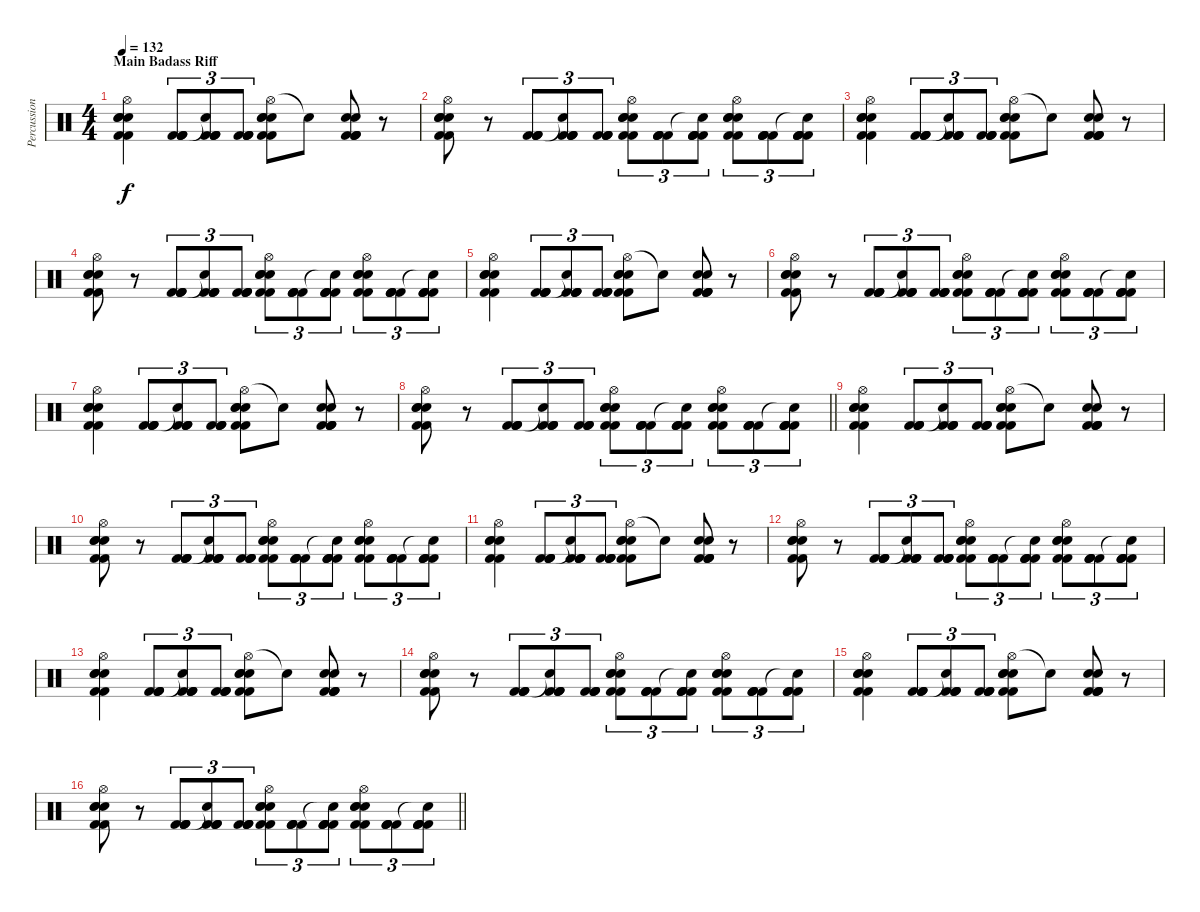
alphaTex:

\track ("Percussion" "Percussion") {instrument percussion}
\staff {score}
\articulation defaults
\ts (4 4)
\section ("" "Main Badass Riff")
\tempo 132
\clef neutral
\ks c
("Hi-Hat (open)" "Electric Snare (hit)" "Snare (hit) 2" "Snare (hit) 2" "Kick (hit) 2" "Kick (hit) 2").4{dy f} ("Kick (hit) 2" "Kick (hit) 2" "Kick (hit) 2" "Kick (hit) 2").8{tu (3 2)} ("Snare (hit)"{t} "Kick (hit) 2" "Kick (hit) 2" "Kick (hit) 2" "Kick (hit) 2").8{tu (3 2)} ("Kick (hit) 2" "Kick (hit) 2" "Kick (hit) 2" "Kick (hit) 2").8{tu (3 2)} ("Hi-Hat (open)" "Electric Snare (hit)" "Snare (hit) 2" "Snare (hit) 2" "Kick (hit) 2" "Kick (hit) 2").8 "Snare (hit)"{t}.8 ("Kick (hit) 2" "Kick (hit) 2" "Snare (hit) 2" "Snare (hit) 2" "Kick (hit) 2" "Kick (hit) 2").8 r.8 |
("Hi-Hat (open)" "Electric Snare (hit)" "Snare (hit) 2" "Snare (hit) 2" "Kick (hit) 2" "Kick (hit) 2").8 r.8 ("Kick (hit) 2" "Kick (hit) 2" "Kick (hit) 2" "Kick (hit) 2").8{tu (3 2)} ("Snare (hit)"{t} "Kick (hit) 2" "Kick (hit) 2" "Kick (hit) 2" "Kick (hit) 2").8{tu (3 2)} ("Kick (hit) 2" "Kick (hit) 2" "Kick (hit) 2" "Kick (hit) 2").8{tu (3 2)} ("Hi-Hat (open)" "Electric Snare (hit)" "Snare (hit) 2" "Snare (hit) 2" "Kick (hit) 2" "Kick (hit) 2").8{tu (3 2)} ("Kick (hit) 2" "Kick (hit) 2" "Kick (hit) 2" "Kick (hit) 2").8{tu (3 2)} ("Snare (hit)"{t} "Kick (hit) 2" "Kick (hit) 2" "Kick (hit) 2" "Kick (hit) 2").8{tu (3 2)} ("Hi-Hat (open)" "Electric Snare (hit)" "Snare (hit) 2" "Snare (hit) 2" "Kick (hit) 2" "Kick (hit) 2").8{tu (3 2)} ("Kick (hit) 2" "Kick (hit) 2" "Kick (hit) 2" "Kick (hit) 2").8{tu (3 2)} ("Snare (hit)"{t} "Kick (hit) 2" "Kick (hit) 2" "Kick (hit) 2" "Kick (hit) 2").8{tu (3 2)} |
("Hi-Hat (open)" "Electric Snare (hit)" "Snare (hit) 2" "Snare (hit) 2" "Kick (hit) 2" "Kick (hit) 2").4 ("Kick (hit) 2" "Kick (hit) 2" "Kick (hit) 2" "Kick (hit) 2").8{tu (3 2)} ("Snare (hit)"{t} "Kick (hit) 2" "Kick (hit) 2" "Kick (hit) 2" "Kick (hit) 2").8{tu (3 2)} ("Kick (hit) 2" "Kick (hit) 2" "Kick (hit) 2" "Kick (hit) 2").8{tu (3 2)} ("Hi-Hat (open)" "Electric Snare (hit)" "Snare (hit) 2" "Snare (hit) 2" "Kick (hit) 2" "Kick (hit) 2").8 "Snare (hit)"{t}.8 ("Kick (hit) 2" "Kick (hit) 2" "Snare (hit) 2" "Snare (hit) 2" "Kick (hit) 2" "Kick (hit) 2").8 r.8 |
("Hi-Hat (open)" "Electric Snare (hit)" "Snare (hit) 2" "Snare (hit) 2" "Kick (hit) 2" "Kick (hit) 2").8 r.8 ("Kick (hit) 2" "Kick (hit) 2" "Kick (hit) 2" "Kick (hit) 2").8{tu (3 2)} ("Snare (hit)"{t} "Kick (hit) 2" "Kick (hit) 2" "Kick (hit) 2" "Kick (hit) 2").8{tu (3 2)} ("Kick (hit) 2" "Kick (hit) 2" "Kick (hit) 2" "Kick (hit) 2").8{tu (3 2)} ("Hi-Hat (open)" "Electric Snare (hit)" "Snare (hit) 2" "Snare (hit) 2" "Kick (hit) 2" "Kick (hit) 2").8{tu (3 2)} ("Kick (hit) 2" "Kick (hit) 2" "Kick (hit) 2" "Kick (hit) 2").8{tu (3 2)} ("Snare (hit)"{t} "Kick (hit) 2" "Kick (hit) 2" "Kick (hit) 2" "Kick (hit) 2").8{tu (3 2)} ("Hi-Hat (open)" "Electric Snare (hit)" "Snare (hit) 2" "Snare (hit) 2" "Kick (hit) 2" "Kick (hit) 2").8{tu (3 2)} ("Kick (hit) 2" "Kick (hit) 2" "Kick (hit) 2" "Kick (hit) 2").8{tu (3 2)} ("Snare (hit)"{t} "Kick (hit) 2" "Kick (hit) 2" "Kick (hit) 2" "Kick (hit) 2").8{tu (3 2)} |
("Hi-Hat (open)" "Electric Snare (hit)" "Snare (hit) 2" "Snare (hit) 2" "Kick (hit) 2" "Kick (hit) 2").4 ("Kick (hit) 2" "Kick (hit) 2" "Kick (hit) 2" "Kick (hit) 2").8{tu (3 2)} ("Snare (hit)"{t} "Kick (hit) 2" "Kick (hit) 2" "Kick (hit) 2" "Kick (hit) 2").8{tu (3 2)} ("Kick (hit) 2" "Kick (hit) 2" "Kick (hit) 2" "Kick (hit) 2").8{tu (3 2)} ("Hi-Hat (open)" "Electric Snare (hit)" "Snare (hit) 2" "Snare (hit) 2" "Kick (hit) 2" "Kick (hit) 2").8 "Snare (hit)"{t}.8 ("Kick (hit) 2" "Kick (hit) 2" "Snare (hit) 2" "Snare (hit) 2" "Kick (hit) 2" "Kick (hit) 2").8 r.8 |
("Hi-Hat (open)" "Electric Snare (hit)" "Snare (hit) 2" "Snare (hit) 2" "Kick (hit) 2" "Kick (hit) 2").8 r.8 ("Kick (hit) 2" "Kick (hit) 2" "Kick (hit) 2" "Kick (hit) 2").8{tu (3 2)} ("Snare (hit)"{t} "Kick (hit) 2" "Kick (hit) 2" "Kick (hit) 2" "Kick (hit) 2").8{tu (3 2)} ("Kick (hit) 2" "Kick (hit) 2" "Kick (hit) 2" "Kick (hit) 2").8{tu (3 2)} ("Hi-Hat (open)" "Electric Snare (hit)" "Snare (hit) 2" "Snare (hit) 2" "Kick (hit) 2" "Kick (hit) 2").8{tu (3 2)} ("Kick (hit) 2" "Kick (hit) 2" "Kick (hit) 2" "Kick (hit) 2").8{tu (3 2)} ("Snare (hit)"{t} "Kick (hit) 2" "Kick (hit) 2" "Kick (hit) 2" "Kick (hit) 2").8{tu (3 2)} ("Hi-Hat (open)" "Electric Snare (hit)" "Snare (hit) 2" "Snare (hit) 2" "Kick (hit) 2" "Kick (hit) 2").8{tu (3 2)} ("Kick (hit) 2" "Kick (hit) 2" "Kick (hit) 2" "Kick (hit) 2").8{tu (3 2)} ("Snare (hit)"{t} "Kick (hit) 2" "Kick (hit) 2" "Kick (hit) 2" "Kick (hit) 2").8{tu (3 2)} |
("Hi-Hat (open)" "Electric Snare (hit)" "Snare (hit) 2" "Snare (hit) 2" "Kick (hit) 2" "Kick (hit) 2").4 ("Kick (hit) 2" "Kick (hit) 2" "Kick (hit) 2" "Kick (hit) 2").8{tu (3 2)} ("Snare (hit)"{t} "Kick (hit) 2" "Kick (hit) 2" "Kick (hit) 2" "Kick (hit) 2").8{tu (3 2)} ("Kick (hit) 2" "Kick (hit) 2" "Kick (hit) 2" "Kick (hit) 2").8{tu (3 2)} ("Hi-Hat (open)" "Electric Snare (hit)" "Snare (hit) 2" "Snare (hit) 2" "Kick (hit) 2" "Kick (hit) 2").8 "Snare (hit)"{t}.8 ("Kick (hit) 2" "Kick (hit) 2" "Snare (hit) 2" "Snare (hit) 2" "Kick (hit) 2" "Kick (hit) 2").8 r.8 |
\barLineRight lightlight
("Hi-Hat (open)" "Electric Snare (hit)" "Snare (hit) 2" "Snare (hit) 2" "Kick (hit) 2" "Kick (hit) 2").8 r.8 ("Kick (hit) 2" "Kick (hit) 2" "Kick (hit) 2" "Kick (hit) 2").8{tu (3 2)} ("Snare (hit)"{t} "Kick (hit) 2" "Kick (hit) 2" "Kick (hit) 2" "Kick (hit) 2").8{tu (3 2)} ("Kick (hit) 2" "Kick (hit) 2" "Kick (hit) 2" "Kick (hit) 2").8{tu (3 2)} ("Hi-Hat (open)" "Electric Snare (hit)" "Snare (hit) 2" "Snare (hit) 2" "Kick (hit) 2" "Kick (hit) 2").8{tu (3 2)} ("Kick (hit) 2" "Kick (hit) 2" "Kick (hit) 2" "Kick (hit) 2").8{tu (3 2)} ("Snare (hit)"{t} "Kick (hit) 2" "Kick (hit) 2" "Kick (hit) 2" "Kick (hit) 2").8{tu (3 2)} ("Hi-Hat (open)" "Electric Snare (hit)" "Snare (hit) 2" "Snare (hit) 2" "Kick (hit) 2" "Kick (hit) 2").8{tu (3 2)} ("Kick (hit) 2" "Kick (hit) 2" "Kick (hit) 2" "Kick (hit) 2").8{tu (3 2)} ("Snare (hit)"{t} "Kick (hit) 2" "Kick (hit) 2" "Kick (hit) 2" "Kick (hit) 2").8{tu (3 2)} |
("Hi-Hat (open)" "Electric Snare (hit)" "Snare (hit) 2" "Snare (hit) 2" "Kick (hit) 2" "Kick (hit) 2").4 ("Kick (hit) 2" "Kick (hit) 2" "Kick (hit) 2" "Kick (hit) 2").8{tu (3 2)} ("Snare (hit)"{t} "Kick (hit) 2" "Kick (hit) 2" "Kick (hit) 2" "Kick (hit) 2").8{tu (3 2)} ("Kick (hit) 2" "Kick (hit) 2" "Kick (hit) 2" "Kick (hit) 2").8{tu (3 2)} ("Hi-Hat (open)" "Electric Snare (hit)" "Snare (hit) 2" "Snare (hit) 2" "Kick (hit) 2" "Kick (hit) 2").8 "Snare (hit)"{t}.8 ("Kick (hit) 2" "Kick (hit) 2" "Snare (hit) 2" "Snare (hit) 2" "Kick (hit) 2" "Kick (hit) 2").8 r.8 |
("Hi-Hat (open)" "Electric Snare (hit)" "Snare (hit) 2" "Snare (hit) 2" "Kick (hit) 2" "Kick (hit) 2").8 r.8 ("Kick (hit) 2" "Kick (hit) 2" "Kick (hit) 2" "Kick (hit) 2").8{tu (3 2)} ("Snare (hit)"{t} "Kick (hit) 2" "Kick (hit) 2" "Kick (hit) 2" "Kick (hit) 2").8{tu (3 2)} ("Kick (hit) 2" "Kick (hit) 2" "Kick (hit) 2" "Kick (hit) 2").8{tu (3 2)} ("Hi-Hat (open)" "Electric Snare (hit)" "Snare (hit) 2" "Snare (hit) 2" "Kick (hit) 2" "Kick (hit) 2").8{tu (3 2)} ("Kick (hit) 2" "Kick (hit) 2" "Kick (hit) 2" "Kick (hit) 2").8{tu (3 2)} ("Snare (hit)"{t} "Kick (hit) 2" "Kick (hit) 2" "Kick (hit) 2" "Kick (hit) 2").8{tu (3 2)} ("Hi-Hat (open)" "Electric Snare (hit)" "Snare (hit) 2" "Snare (hit) 2" "Kick (hit) 2" "Kick (hit) 2").8{tu (3 2)} ("Kick (hit) 2" "Kick (hit) 2" "Kick (hit) 2" "Kick (hit) 2").8{tu (3 2)} ("Snare (hit)"{t} "Kick (hit) 2" "Kick (hit) 2" "Kick (hit) 2" "Kick (hit) 2").8{tu (3 2)} |
("Hi-Hat (open)" "Electric Snare (hit)" "Snare (hit) 2" "Snare (hit) 2" "Kick (hit) 2" "Kick (hit) 2").4 ("Kick (hit) 2" "Kick (hit) 2" "Kick (hit) 2" "Kick (hit) 2").8{tu (3 2)} ("Snare (hit)"{t} "Kick (hit) 2" "Kick (hit) 2" "Kick (hit) 2" "Kick (hit) 2").8{tu (3 2)} ("Kick (hit) 2" "Kick (hit) 2" "Kick (hit) 2" "Kick (hit) 2").8{tu (3 2)} ("Hi-Hat (open)" "Electric Snare (hit)" "Snare (hit) 2" "Snare (hit) 2" "Kick (hit) 2" "Kick (hit) 2").8 "Snare (hit)"{t}.8 ("Kick (hit) 2" "Kick (hit) 2" "Snare (hit) 2" "Snare (hit) 2" "Kick (hit) 2" "Kick (hit) 2").8 r.8 |
("Hi-Hat (open)" "Electric Snare (hit)" "Snare (hit) 2" "Snare (hit) 2" "Kick (hit) 2" "Kick (hit) 2").8 r.8 ("Kick (hit) 2" "Kick (hit) 2" "Kick (hit) 2" "Kick (hit) 2").8{tu (3 2)} ("Snare (hit)"{t} "Kick (hit) 2" "Kick (hit) 2" "Kick (hit) 2" "Kick (hit) 2").8{tu (3 2)} ("Kick (hit) 2" "Kick (hit) 2" "Kick (hit) 2" "Kick (hit) 2").8{tu (3 2)} ("Hi-Hat (open)" "Electric Snare (hit)" "Snare (hit) 2" "Snare (hit) 2" "Kick (hit) 2" "Kick (hit) 2").8{tu (3 2)} ("Kick (hit) 2" "Kick (hit) 2" "Kick (hit) 2" "Kick (hit) 2").8{tu (3 2)} ("Snare (hit)"{t} "Kick (hit) 2" "Kick (hit) 2" "Kick (hit) 2" "Kick (hit) 2").8{tu (3 2)} ("Hi-Hat (open)" "Electric Snare (hit)" "Snare (hit) 2" "Snare (hit) 2" "Kick (hit) 2" "Kick (hit) 2").8{tu (3 2)} ("Kick (hit) 2" "Kick (hit) 2" "Kick (hit) 2" "Kick (hit) 2").8{tu (3 2)} ("Snare (hit)"{t} "Kick (hit) 2" "Kick (hit) 2" "Kick (hit) 2" "Kick (hit) 2").8{tu (3 2)} |
("Hi-Hat (open)" "Electric Snare (hit)" "Snare (hit) 2" "Snare (hit) 2" "Kick (hit) 2" "Kick (hit) 2").4 ("Kick (hit) 2" "Kick (hit) 2" "Kick (hit) 2" "Kick (hit) 2").8{tu (3 2)} ("Snare (hit)"{t} "Kick (hit) 2" "Kick (hit) 2" "Kick (hit) 2" "Kick (hit) 2").8{tu (3 2)} ("Kick (hit) 2" "Kick (hit) 2" "Kick (hit) 2" "Kick (hit) 2").8{tu (3 2)} ("Hi-Hat (open)" "Electric Snare (hit)" "Snare (hit) 2" "Snare (hit) 2" "Kick (hit) 2" "Kick (hit) 2").8 "Snare (hit)"{t}.8 ("Kick (hit) 2" "Kick (hit) 2" "Snare (hit) 2" "Snare (hit) 2" "Kick (hit) 2" "Kick (hit) 2").8 r.8 |
("Hi-Hat (open)" "Electric Snare (hit)" "Snare (hit) 2" "Snare (hit) 2" "Kick (hit) 2" "Kick (hit) 2").8 r.8 ("Kick (hit) 2" "Kick (hit) 2" "Kick (hit) 2" "Kick (hit) 2").8{tu (3 2)} ("Snare (hit)"{t} "Kick (hit) 2" "Kick (hit) 2" "Kick (hit) 2" "Kick (hit) 2").8{tu (3 2)} ("Kick (hit) 2" "Kick (hit) 2" "Kick (hit) 2" "Kick (hit) 2").8{tu (3 2)} ("Hi-Hat (open)" "Electric Snare (hit)" "Snare (hit) 2" "Snare (hit) 2" "Kick (hit) 2" "Kick (hit) 2").8{tu (3 2)} ("Kick (hit) 2" "Kick (hit) 2" "Kick (hit) 2" "Kick (hit) 2").8{tu (3 2)} ("Snare (hit)"{t} "Kick (hit) 2" "Kick (hit) 2" "Kick (hit) 2" "Kick (hit) 2").8{tu (3 2)} ("Hi-Hat (open)" "Electric Snare (hit)" "Snare (hit) 2" "Snare (hit) 2" "Kick (hit) 2" "Kick (hit) 2").8{tu (3 2)} ("Kick (hit) 2" "Kick (hit) 2" "Kick (hit) 2" "Kick (hit) 2").8{tu (3 2)} ("Snare (hit)"{t} "Kick (hit) 2" "Kick (hit) 2" "Kick (hit) 2" "Kick (hit) 2").8{tu (3 2)} |
("Hi-Hat (open)" "Electric Snare (hit)" "Snare (hit) 2" "Snare (hit) 2" "Kick (hit) 2" "Kick (hit) 2").4 ("Kick (hit) 2" "Kick (hit) 2" "Kick (hit) 2" "Kick (hit) 2").8{tu (3 2)} ("Snare (hit)"{t} "Kick (hit) 2" "Kick (hit) 2" "Kick (hit) 2" "Kick (hit) 2").8{tu (3 2)} ("Kick (hit) 2" "Kick (hit) 2" "Kick (hit) 2" "Kick (hit) 2").8{tu (3 2)} ("Hi-Hat (open)" "Electric Snare (hit)" "Snare (hit) 2" "Snare (hit) 2" "Kick (hit) 2" "Kick (hit) 2").8 "Snare (hit)"{t}.8 ("Kick (hit) 2" "Kick (hit) 2" "Snare (hit) 2" "Snare (hit) 2" "Kick (hit) 2" "Kick (hit) 2").8 r.8 |
\barLineRight lightlight
("Hi-Hat (open)" "Electric Snare (hit)" "Snare (hit) 2" "Snare (hit) 2" "Kick (hit) 2" "Kick (hit) 2").8 r.8 ("Kick (hit) 2" "Kick (hit) 2" "Kick (hit) 2" "Kick (hit) 2").8{tu (3 2)} ("Snare (hit)"{t} "Kick (hit) 2" "Kick (hit) 2" "Kick (hit) 2" "Kick (hit) 2").8{tu (3 2)} ("Kick (hit) 2" "Kick (hit) 2" "Kick (hit) 2" "Kick (hit) 2").8{tu (3 2)} ("Hi-Hat (open)" "Electric Snare (hit)" "Snare (hit) 2" "Snare (hit) 2" "Kick (hit) 2" "Kick (hit) 2").8{tu (3 2)} ("Kick (hit) 2" "Kick (hit) 2" "Kick (hit) 2" "Kick (hit) 2").8{tu (3 2)} ("Snare (hit)"{t} "Kick (hit) 2" "Kick (hit) 2" "Kick (hit) 2" "Kick (hit) 2").8{tu (3 2)} ("Hi-Hat (open)" "Electric Snare (hit)" "Snare (hit) 2" "Snare (hit) 2" "Kick (hit) 2" "Kick (hit) 2").8{tu (3 2)} ("Kick (hit) 2" "Kick (hit) 2" "Kick (hit) 2" "Kick (hit) 2").8{tu (3 2)} ("Snare (hit)"{t} "Kick (hit) 2" "Kick (hit) 2" "Kick (hit) 2" "Kick (hit) 2").8{tu (3 2)}
